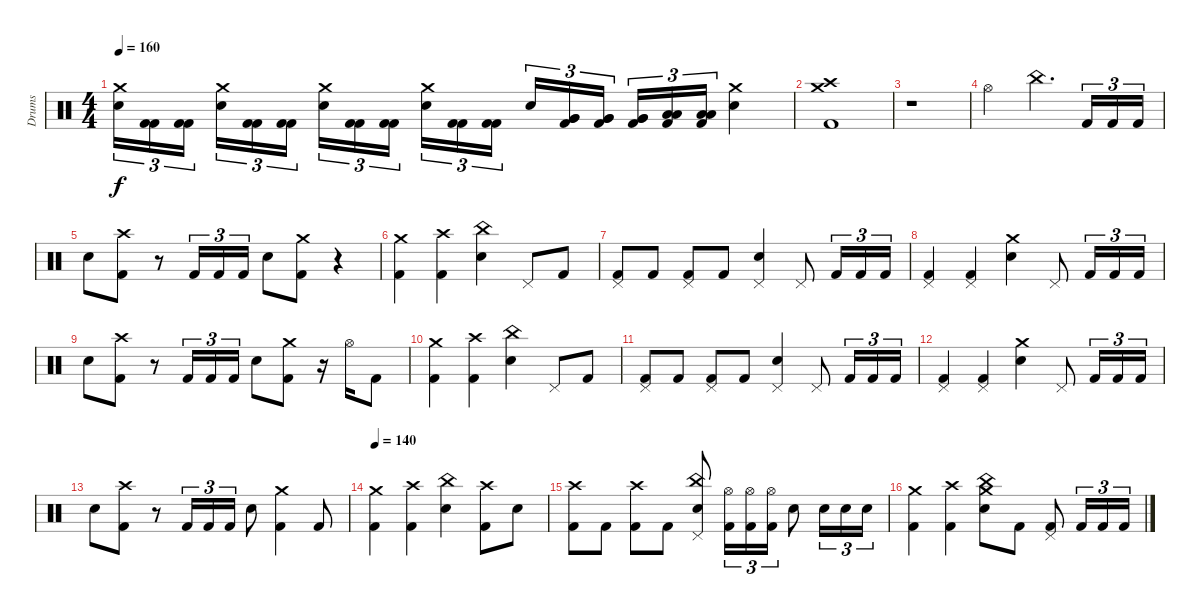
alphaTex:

\track ("Drums" "Drums") {instrument percussion}
\staff {score}
\articulation defaults
\ts (4 4)
\tempo 160
\clef neutral
\ks c
("Crash medium (hit)" "Electric Snare (hit)").16{tu (3 2) dy f} ("Kick (hit) 2" "Kick (hit) 2").16{tu (3 2)} ("Kick (hit) 2" "Kick (hit) 2").16{tu (3 2) beam splitsecondary} ("Crash medium (hit)" "Electric Snare (hit)").16{tu (3 2)} ("Kick (hit) 2" "Kick (hit) 2").16{tu (3 2)} ("Kick (hit) 2" "Kick (hit) 2").16{tu (3 2)} ("Crash medium (hit)" "Electric Snare (hit)").16{tu (3 2)} ("Kick (hit) 2" "Kick (hit) 2").16{tu (3 2)} ("Kick (hit) 2" "Kick (hit) 2").16{tu (3 2) beam splitsecondary} ("Crash medium (hit)" "Electric Snare (hit)").16{tu (3 2)} ("Kick (hit) 2" "Kick (hit) 2").16{tu (3 2)} ("Kick (hit) 2" "Kick (hit) 2").16{tu (3 2)} "Electric Snare (hit)".16{tu (3 2)} ("Very Low Tom (hit)" "Very Low Tom (hit)" "Kick (hit) 2").16{tu (3 2)} ("Very Low Tom (hit)" "Very Low Tom (hit)" "Kick (hit) 2").16{tu (3 2) beam splitsecondary} ("Very Low Tom (hit)" "Very Low Tom (hit)" "Kick (hit) 2").16{tu (3 2)} ("Low Tom (hit)" "Low Tom (hit)" "Kick (hit) 2").16{tu (3 2)} ("Low Tom (hit)" "Low Tom (hit)" "Kick (hit) 2").16{tu (3 2)} ("Crash medium (hit)" "Electric Snare (hit)").4 |
("Crash high (hit)" "Crash medium (hit)" "Kick (hit) 2").1 |
r.1 |
"Hi-Hat (open)".2 "China (hit)".4{d} "Kick (hit) 2".16{tu (3 2)} "Kick (hit) 2".16{tu (3 2)} "Kick (hit) 2".16{tu (3 2)} |
"Electric Snare (hit)".8 ("Crash high (hit)" "Kick (hit) 2").8 r.8 "Kick (hit) 2".16{tu (3 2)} "Kick (hit) 2".16{tu (3 2)} "Kick (hit) 2".16{tu (3 2)} "Electric Snare (hit)".8 ("Crash medium (hit)" "Kick (hit) 2").8 r.4 |
("Crash medium (hit)" "Kick (hit) 2").4 ("Crash high (hit)" "Kick (hit) 2").4 ("China (hit)" "Electric Snare (hit)").4 "Pedal Hi-Hat (hit)".8 "Kick (hit) 2".8 |
("Pedal Hi-Hat (hit)" "Kick (hit) 2").8 "Kick (hit) 2".8 ("Pedal Hi-Hat (hit)" "Kick (hit) 2").8 "Kick (hit) 2".8 ("Pedal Hi-Hat (hit)" "Electric Snare (hit)").4 "Pedal Hi-Hat (hit)".8 "Kick (hit) 2".16{tu (3 2)} "Kick (hit) 2".16{tu (3 2)} "Kick (hit) 2".16{tu (3 2)} |
("Pedal Hi-Hat (hit)" "Kick (hit) 2").4 ("Pedal Hi-Hat (hit)" "Kick (hit) 2").4 ("Crash medium (hit)" "Electric Snare (hit)").4 "Pedal Hi-Hat (hit)".8 "Kick (hit) 2".16{tu (3 2)} "Kick (hit) 2".16{tu (3 2)} "Kick (hit) 2".16{tu (3 2)} |
"Electric Snare (hit)".8 ("Crash high (hit)" "Kick (hit) 2").8 r.8 "Kick (hit) 2".16{tu (3 2)} "Kick (hit) 2".16{tu (3 2)} "Kick (hit) 2".16{tu (3 2)} "Electric Snare (hit)".8 ("Crash medium (hit)" "Kick (hit) 2").8 r.16 "Hi-Hat (open)".16 "Kick (hit) 2".8 |
("Crash medium (hit)" "Kick (hit) 2").4 ("Crash high (hit)" "Kick (hit) 2").4 ("China (hit)" "Electric Snare (hit)").4 "Pedal Hi-Hat (hit)".8 "Kick (hit) 2".8 |
("Pedal Hi-Hat (hit)" "Kick (hit) 2").8 "Kick (hit) 2".8 ("Pedal Hi-Hat (hit)" "Kick (hit) 2").8 "Kick (hit) 2".8 ("Pedal Hi-Hat (hit)" "Electric Snare (hit)").4 "Pedal Hi-Hat (hit)".8 "Kick (hit) 2".16{tu (3 2)} "Kick (hit) 2".16{tu (3 2)} "Kick (hit) 2".16{tu (3 2)} |
("Pedal Hi-Hat (hit)" "Kick (hit) 2").4 ("Pedal Hi-Hat (hit)" "Kick (hit) 2").4 ("Crash medium (hit)" "Electric Snare (hit)").4 "Pedal Hi-Hat (hit)".8 "Kick (hit) 2".16{tu (3 2)} "Kick (hit) 2".16{tu (3 2)} "Kick (hit) 2".16{tu (3 2)} |
"Electric Snare (hit)".8 ("Crash high (hit)" "Kick (hit) 2").8 r.8 "Kick (hit) 2".16{tu (3 2)} "Kick (hit) 2".16{tu (3 2)} "Kick (hit) 2".16{tu (3 2)} "Electric Snare (hit)".8 ("Crash medium (hit)" "Kick (hit) 2").4 "Kick (hit) 2".8 |
\tempo 140
("Crash medium (hit)" "Kick (hit) 2").4 ("Crash high (hit)" "Kick (hit) 2").4 ("China (hit)" "Electric Snare (hit)").4 ("Crash high (hit)" "Kick (hit) 2").8 "Electric Snare (hit)".8 |
("Crash high (hit)" "Kick (hit) 2").8 "Kick (hit) 2".8 ("Crash high (hit)" "Kick (hit) 2").8 "Kick (hit) 2".8 ("China (hit)" "Pedal Hi-Hat (hit)" "Electric Snare (hit)").8 ("Hi-Hat (open)" "Kick (hit) 2").16{tu (3 2)} ("Hi-Hat (open)" "Kick (hit) 2").16{tu (3 2)} ("Hi-Hat (open)" "Kick (hit) 2").16{tu (3 2)} "Electric Snare (hit)".8 "Electric Snare (hit)".16{tu (3 2)} "Electric Snare (hit)".16{tu (3 2)} "Electric Snare (hit)".16{tu (3 2)} |
("Crash medium (hit)" "Kick (hit) 2").4 ("Crash high (hit)" "Kick (hit) 2").4 ("Crash medium (hit)" "China (hit)" "Electric Snare (hit)").8 "Kick (hit) 2".8 ("Pedal Hi-Hat (hit)" "Kick (hit) 2").8 "Kick (hit) 2".16{tu (3 2)} "Kick (hit) 2".16{tu (3 2)} "Kick (hit) 2".16{tu (3 2)}
